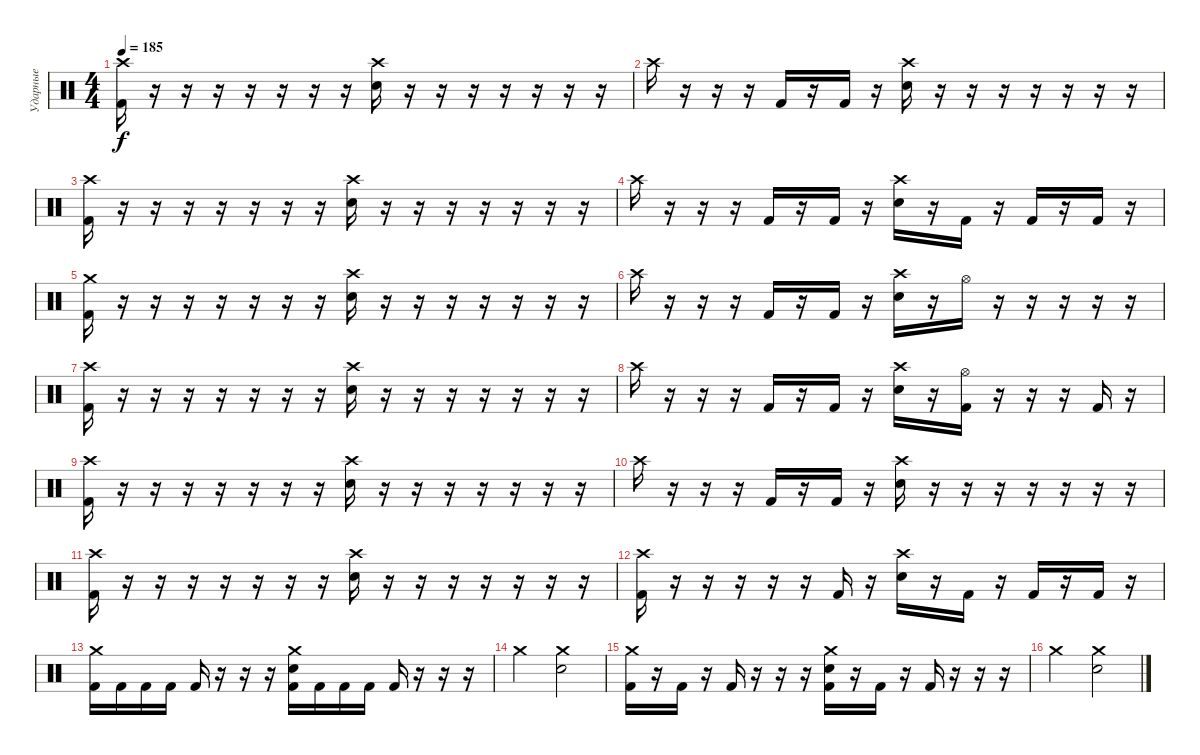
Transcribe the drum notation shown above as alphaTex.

\track ("Ударные" "Ударные") {instrument percussion}
\staff {score}
\articulation defaults
\ts (4 4)
\tempo 185
\clef neutral
\ks c
("Crash high (hit)" "Kick (hit) 2").16{dy f} r.16 r.16 r.16 r.16 r.16 r.16 r.16 ("Crash high (hit)" "Electric Snare (hit)").16 r.16 r.16 r.16 r.16 r.16 r.16 r.16 |
"Crash high (hit)".16 r.16 r.16 r.16 "Kick (hit) 2".16 r.16 "Kick (hit) 2".16 r.16 ("Crash high (hit)" "Electric Snare (hit)").16 r.16 r.16 r.16 r.16 r.16 r.16 r.16 |
("Crash high (hit)" "Kick (hit) 2").16 r.16 r.16 r.16 r.16 r.16 r.16 r.16 ("Crash high (hit)" "Electric Snare (hit)").16 r.16 r.16 r.16 r.16 r.16 r.16 r.16 |
"Crash high (hit)".16 r.16 r.16 r.16 "Kick (hit) 2".16 r.16 "Kick (hit) 2".16 r.16 ("Crash high (hit)" "Electric Snare (hit)").16 r.16 "Kick (hit) 2".16 r.16 "Kick (hit) 2".16 r.16 "Kick (hit) 2".16 r.16 |
("Crash medium (hit)" "Kick (hit) 2").16 r.16 r.16 r.16 r.16 r.16 r.16 r.16 ("Crash high (hit)" "Electric Snare (hit)").16 r.16 r.16 r.16 r.16 r.16 r.16 r.16 |
"Crash high (hit)".16 r.16 r.16 r.16 "Kick (hit) 2".16 r.16 "Kick (hit) 2".16 r.16 ("Crash high (hit)" "Electric Snare (hit)").16 r.16 "Hi-Hat (open)".16 r.16 r.16 r.16 r.16 r.16 |
("Crash high (hit)" "Kick (hit) 2").16 r.16 r.16 r.16 r.16 r.16 r.16 r.16 ("Crash high (hit)" "Electric Snare (hit)").16 r.16 r.16 r.16 r.16 r.16 r.16 r.16 |
"Crash high (hit)".16 r.16 r.16 r.16 "Kick (hit) 2".16 r.16 "Kick (hit) 2".16 r.16 ("Crash high (hit)" "Electric Snare (hit)").16 r.16 ("Hi-Hat (open)" "Kick (hit) 2").16 r.16 r.16 r.16 "Kick (hit) 2".16 r.16 |
("Crash high (hit)" "Kick (hit) 2").16 r.16 r.16 r.16 r.16 r.16 r.16 r.16 ("Crash high (hit)" "Electric Snare (hit)").16 r.16 r.16 r.16 r.16 r.16 r.16 r.16 |
"Crash high (hit)".16 r.16 r.16 r.16 "Kick (hit) 2".16 r.16 "Kick (hit) 2".16 r.16 ("Crash high (hit)" "Electric Snare (hit)").16 r.16 r.16 r.16 r.16 r.16 r.16 r.16 |
("Crash high (hit)" "Kick (hit) 2").16 r.16 r.16 r.16 r.16 r.16 r.16 r.16 ("Crash high (hit)" "Electric Snare (hit)").16 r.16 r.16 r.16 r.16 r.16 r.16 r.16 |
("Crash high (hit)" "Kick (hit) 2").16 r.16 r.16 r.16 r.16 r.16 "Kick (hit) 2".16 r.16 ("Crash high (hit)" "Electric Snare (hit)").16 r.16 "Kick (hit) 2".16 r.16 "Kick (hit) 2".16 r.16 "Kick (hit) 2".16 r.16 |
("Crash medium (hit)" "Kick (hit) 2").16 "Kick (hit) 2".16 "Kick (hit) 2".16 "Kick (hit) 2".16 "Kick (hit) 2".16 r.16 r.16 r.16 ("Crash medium (hit)" "Electric Snare (hit)" "Kick (hit) 2").16 "Kick (hit) 2".16 "Kick (hit) 2".16 "Kick (hit) 2".16 "Kick (hit) 2".16 r.16 r.16 r.16 |
"Crash medium (hit)".2 ("Crash medium (hit)" "Electric Snare (hit)").2 |
("Crash medium (hit)" "Kick (hit) 2").16 r.16 "Kick (hit) 2".16 r.16 "Kick (hit) 2".16 r.16 r.16 r.16 ("Crash medium (hit)" "Electric Snare (hit)" "Kick (hit) 2").16 r.16 "Kick (hit) 2".16 r.16 "Kick (hit) 2".16 r.16 r.16 r.16 |
"Crash medium (hit)".2 ("Crash medium (hit)" "Electric Snare (hit)").2
